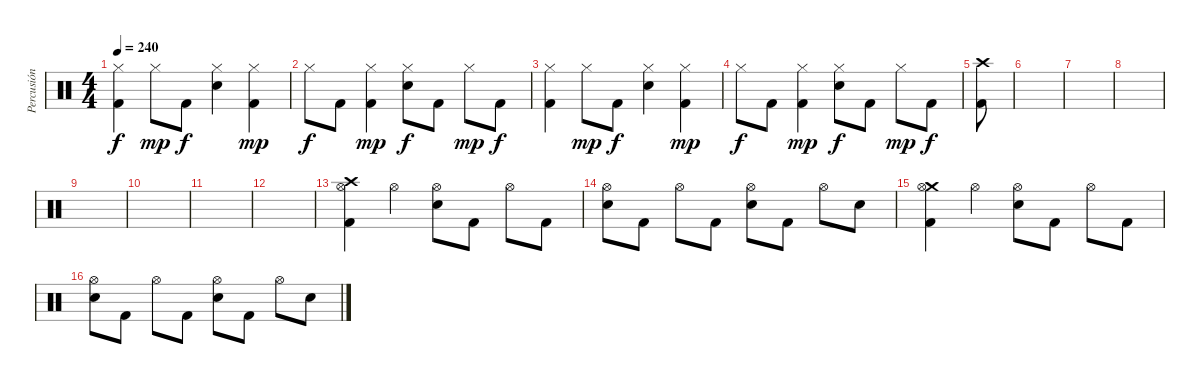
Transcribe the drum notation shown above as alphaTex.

\track ("Percusión" "Percusión") {instrument percussion}
\staff {score}
\articulation defaults
\ts (4 4)
\tempo 240
\clef neutral
\ks c
("Hi-Hat (closed)" "Kick (hit) 2").4{dy f} "Hi-Hat (closed)".8{dy mp} "Kick (hit) 2".8{dy f} ("Hi-Hat (closed)" "Snare (hit) 2").4 ("Hi-Hat (closed)" "Kick (hit) 2").4{dy mp} |
"Hi-Hat (closed)".8{dy f} "Kick (hit) 2".8 ("Hi-Hat (closed)" "Kick (hit) 2").4{dy mp} ("Hi-Hat (closed)" "Snare (hit) 2").8{dy f} "Kick (hit) 2".8 "Hi-Hat (closed)".8{dy mp} "Kick (hit) 2".8{dy f} |
("Hi-Hat (closed)" "Kick (hit) 2").4 "Hi-Hat (closed)".8{dy mp} "Kick (hit) 2".8{dy f} ("Hi-Hat (closed)" "Snare (hit) 2").4 ("Hi-Hat (closed)" "Kick (hit) 2").4{dy mp} |
"Hi-Hat (closed)".8{dy f} "Kick (hit) 2".8 ("Hi-Hat (closed)" "Kick (hit) 2").4{dy mp} ("Hi-Hat (closed)" "Snare (hit) 2").8{dy f} "Kick (hit) 2".8 "Hi-Hat (closed)".8{dy mp} "Kick (hit) 2".8{dy f} |
("Crash high (hit)" "Kick (hit) 2").8 |
|
|
|
|
|
|
|
("Crash high (hit)" "Hi-Hat (open)" "Kick (hit) 2").4 "Hi-Hat (open)".4 ("Hi-Hat (open)" "Snare (hit) 2").8 "Kick (hit) 2".8 "Hi-Hat (open)".8 "Kick (hit) 2".8 |
("Hi-Hat (open)" "Snare (hit) 2").8 "Kick (hit) 2".8 "Hi-Hat (open)".8 "Kick (hit) 2".8 ("Hi-Hat (open)" "Snare (hit) 2").8 "Kick (hit) 2".8 "Hi-Hat (open)".8 "Snare (hit) 2".8 |
("Crash medium (hit)" "Hi-Hat (open)" "Kick (hit) 2").4 "Hi-Hat (open)".4 ("Hi-Hat (open)" "Snare (hit) 2").8 "Kick (hit) 2".8 "Hi-Hat (open)".8 "Kick (hit) 2".8 |
("Hi-Hat (open)" "Snare (hit) 2").8 "Kick (hit) 2".8 "Hi-Hat (open)".8 "Kick (hit) 2".8 ("Hi-Hat (open)" "Snare (hit) 2").8 "Kick (hit) 2".8 "Hi-Hat (open)".8 "Snare (hit) 2".8
